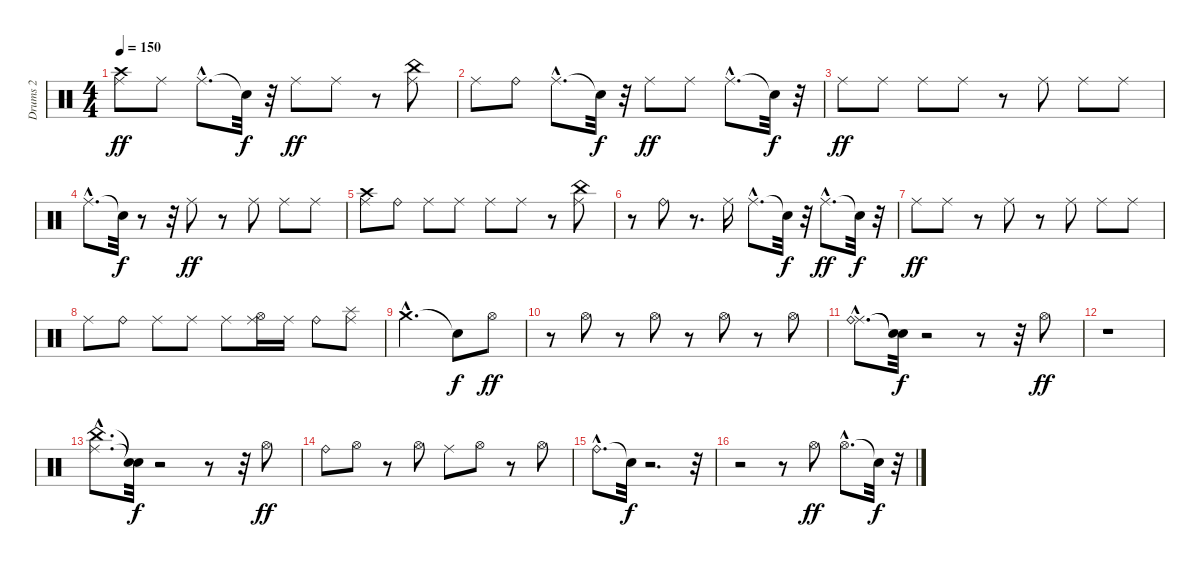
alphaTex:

\track ("Drums 2" "Drums 2") {instrument percussion}
\staff {score}
\articulation defaults
\ts (4 4)
\tempo 150
\clef neutral
\ks c
("Crash high (hit)" "Ride (middle)").8{dy ff} "Ride (middle)".8 "Ride (middle)"{hac}.8{d} "Snare (hit)"{t}.32{dy f} r.32 "Ride (middle)".8{dy ff} "Ride (middle)".8 r.8 ("Ride (middle)" "China (hit)").8 |
"Ride (middle)".8 "Ride (bell)".8 "Ride (middle)"{hac}.8{d} "Snare (hit)"{t}.32{dy f} r.32 "Ride (middle)".8{dy ff} "Ride (middle)".8 "Ride (middle)"{hac}.8{d} "Snare (hit)"{t}.32{dy f} r.32 |
"Ride (middle)".8{dy ff} "Ride (middle)".8 "Ride (middle)".8 "Ride (middle)".8 r.8 "Ride (middle)".8 "Ride (middle)".8 "Ride (middle)".8 |
"Ride (middle)"{hac}.8{d} "Snare (hit)"{t}.32{dy f} r.8 r.32 "Ride (middle)".8{dy ff} r.8 "Ride (middle)".8 "Ride (middle)".8 "Ride (middle)".8 |
("Crash high (hit)" "Ride (middle)").8 "Ride (bell)".8 "Ride (middle)".8 "Ride (middle)".8 "Ride (middle)".8 "Ride (middle)".8 r.8 ("Ride (middle)" "China (hit)").8 |
r.8 "Ride (bell)".8 r.8{d} "Ride (middle)".16 "Ride (middle)"{hac}.8{d} "Snare (hit)"{t}.32{dy f} r.32 "Ride (middle)"{hac}.8{d dy ff} "Snare (hit)"{t}.32{dy f} r.32 |
"Ride (middle)".8{dy ff} "Ride (middle)".8 r.8 "Ride (middle)".8 r.8 "Ride (middle)".8 "Ride (middle)".8 "Ride (middle)".8 |
"Ride (middle)".8 "Ride (bell)".8 "Ride (middle)".8 "Ride (middle)".8 "Ride (middle)".8 ("Hi-Hat (open)" "Ride (middle)").16 "Ride (middle)".16 "Ride (bell)".8 ("Ride (middle)" "Splash (hit)").8 |
"Crash medium (hit)"{hac}.2{d} "Snare (hit)"{t}.8{dy f} "Hi-Hat (open)".8{dy ff} |
r.8 "Hi-Hat (open)".8 r.8 "Hi-Hat (open)".8 r.8 "Hi-Hat (open)".8 r.8 "Hi-Hat (open)".8 |
("Ride (middle)"{hac} "Ride (bell)"{hac}).8{d} ("Snare (hit)"{t} "Snare (hit)"{t}).32{dy f} r.2 r.8 r.32 "Hi-Hat (open)".8{dy ff} |
r.1 |
("Ride (middle)"{hac} "China (hit)"{hac}).8{d} ("Snare (hit)"{t} "Snare (hit)"{t}).32{dy f} r.2 r.8 r.32 "Hi-Hat (open)".8{dy ff} |
"Ride (bell)".8 "Hi-Hat (open)".8 r.8 "Hi-Hat (open)".8 "Ride (middle)".8 "Hi-Hat (open)".8 r.8 "Hi-Hat (open)".8 |
"Ride (bell)"{hac}.8{d} "Snare (hit)"{t}.32{dy f} r.2{d} r.32 |
r.2 r.8 "Hi-Hat (open)".8{dy ff} "Hi-Hat (open)"{hac}.8{d} "Snare (hit)"{t}.32{dy f} r.32
